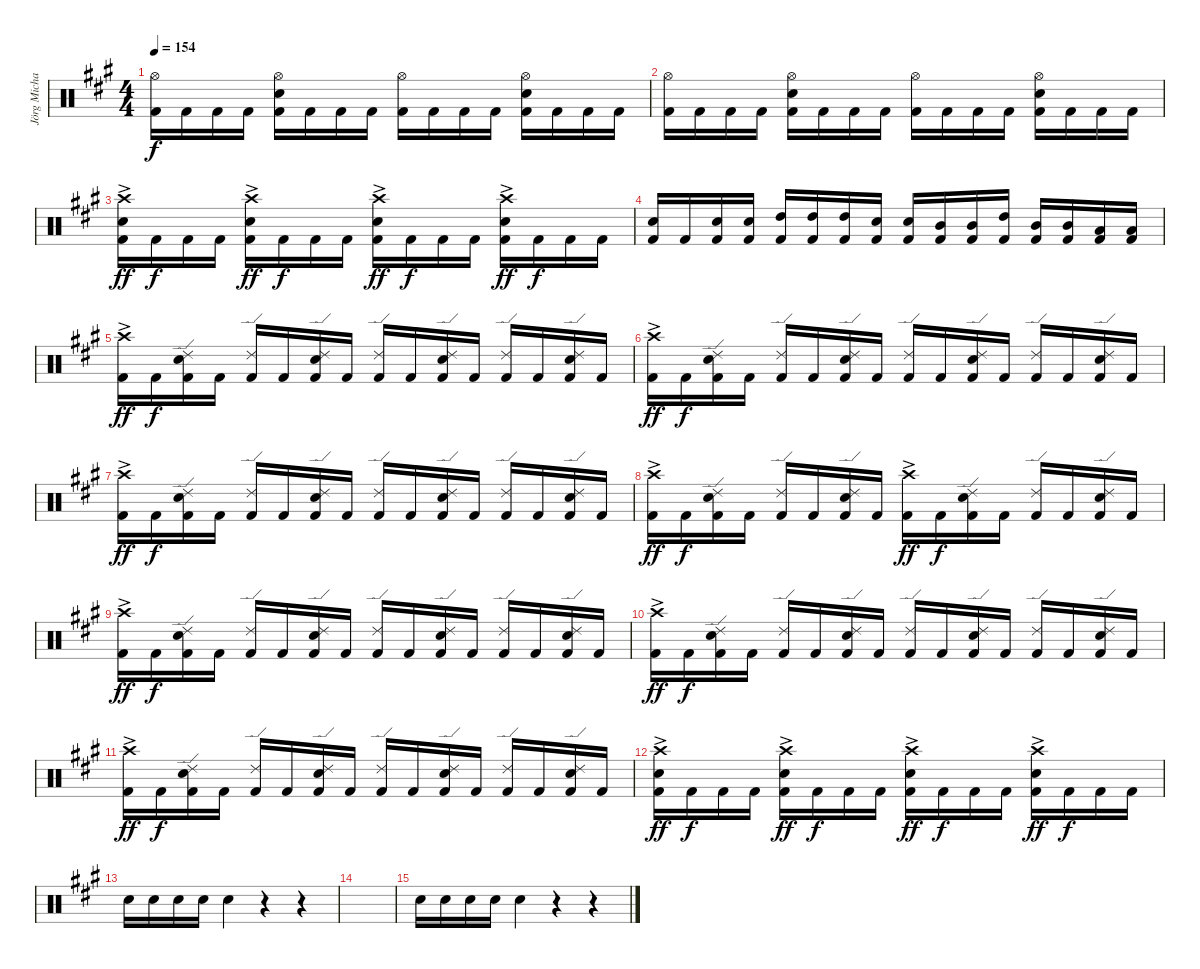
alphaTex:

\track ("Jörg Michael" "Jörg Micha") {instrument percussion}
\staff {score}
\articulation defaults
\ts (4 4)
\tempo 154
\clef neutral
\ks a
("Hi-Hat (open)" "Kick (hit) 2").16{dy f} "Kick (hit) 2".16 "Kick (hit) 2".16 "Kick (hit) 2".16 ("Electric Snare (hit)" "Kick (hit) 2" "Hi-Hat (open)").16 "Kick (hit) 2".16 "Kick (hit) 2".16 "Kick (hit) 2".16 ("Kick (hit) 2" "Hi-Hat (open)").16 "Kick (hit) 2".16 "Kick (hit) 2".16 "Kick (hit) 2".16 ("Electric Snare (hit)" "Kick (hit) 2" "Hi-Hat (open)").16 "Kick (hit) 2".16 "Kick (hit) 2".16 "Kick (hit) 2".16 |
("Hi-Hat (open)" "Kick (hit) 2").16 "Kick (hit) 2".16 "Kick (hit) 2".16 "Kick (hit) 2".16 ("Electric Snare (hit)" "Kick (hit) 2" "Hi-Hat (open)").16 "Kick (hit) 2".16 "Kick (hit) 2".16 "Kick (hit) 2".16 ("Kick (hit) 2" "Hi-Hat (open)").16 "Kick (hit) 2".16 "Kick (hit) 2".16 "Kick (hit) 2".16 ("Electric Snare (hit)" "Kick (hit) 2" "Hi-Hat (open)").16 "Kick (hit) 2".16 "Kick (hit) 2".16 "Kick (hit) 2".16 |
("Crash high (hit)"{ac} "Kick (hit) 2"{ac} "Electric Snare (hit)"{ac}).16{dy ff} "Kick (hit) 2".16{dy f} "Kick (hit) 2".16 "Kick (hit) 2".16 ("Electric Snare (hit)"{ac} "Kick (hit) 2"{ac} "Crash high (hit)"{ac}).16{dy ff} "Kick (hit) 2".16{dy f} "Kick (hit) 2".16 "Kick (hit) 2".16 ("Electric Snare (hit)"{ac} "Kick (hit) 2"{ac} "Crash high (hit)"{ac}).16{dy ff} "Kick (hit) 2".16{dy f} "Kick (hit) 2".16 "Kick (hit) 2".16 ("Electric Snare (hit)"{ac} "Kick (hit) 2"{ac} "Crash high (hit)"{ac}).16{dy ff} "Kick (hit) 2".16{dy f} "Kick (hit) 2".16 "Kick (hit) 2".16 |
("Electric Snare (hit)" "Kick (hit) 2").16 "Kick (hit) 2".16 ("Electric Snare (hit)" "Kick (hit) 2").16 ("Electric Snare (hit)" "Kick (hit) 2").16 ("High Tom (hit)" "Kick (hit) 2").16 ("High Tom (hit)" "Kick (hit) 2").16 ("High Tom (hit)" "Kick (hit) 2").16 ("Electric Snare (hit)" "Kick (hit) 2").16 ("Electric Snare (hit)" "Kick (hit) 2").16 ("Mid Tom (hit)" "Kick (hit) 2").16 ("Mid Tom (hit)" "Kick (hit) 2").16 ("High Tom (hit)" "Kick (hit) 2").16 ("Mid Tom (hit)" "Kick (hit) 2").16 ("Mid Tom (hit)" "Kick (hit) 2").16 ("Low Tom (hit)" "Kick (hit) 2").16 ("Low Tom (hit)" "Kick (hit) 2").16 |
("Crash high (hit)"{ac} "Kick (hit) 2"{ac}).16{dy ff} "Kick (hit) 2".16{dy f} ("Ride (edge) 2" "Kick (hit) 2" "Electric Snare (hit)").16 "Kick (hit) 2".16 ("Ride (edge) 2" "Kick (hit) 2").16 "Kick (hit) 2".16 ("Ride (edge) 2" "Kick (hit) 2" "Electric Snare (hit)").16 "Kick (hit) 2".16 ("Kick (hit) 2" "Ride (edge) 2").16 "Kick (hit) 2".16 ("Ride (edge) 2" "Kick (hit) 2" "Electric Snare (hit)").16 "Kick (hit) 2".16 ("Kick (hit) 2" "Ride (edge) 2").16 "Kick (hit) 2".16 ("Ride (edge) 2" "Kick (hit) 2" "Electric Snare (hit)").16 "Kick (hit) 2".16 |
("Crash high (hit)"{ac} "Kick (hit) 2"{ac}).16{dy ff} "Kick (hit) 2".16{dy f} ("Ride (edge) 2" "Kick (hit) 2" "Electric Snare (hit)").16 "Kick (hit) 2".16 ("Ride (edge) 2" "Kick (hit) 2").16 "Kick (hit) 2".16 ("Ride (edge) 2" "Kick (hit) 2" "Electric Snare (hit)").16 "Kick (hit) 2".16 ("Kick (hit) 2" "Ride (edge) 2").16 "Kick (hit) 2".16 ("Ride (edge) 2" "Kick (hit) 2" "Electric Snare (hit)").16 "Kick (hit) 2".16 ("Kick (hit) 2" "Ride (edge) 2").16 "Kick (hit) 2".16 ("Ride (edge) 2" "Kick (hit) 2" "Electric Snare (hit)").16 "Kick (hit) 2".16 |
("Crash high (hit)"{ac} "Kick (hit) 2"{ac}).16{dy ff} "Kick (hit) 2".16{dy f} ("Ride (edge) 2" "Kick (hit) 2" "Electric Snare (hit)").16 "Kick (hit) 2".16 ("Ride (edge) 2" "Kick (hit) 2").16 "Kick (hit) 2".16 ("Ride (edge) 2" "Kick (hit) 2" "Electric Snare (hit)").16 "Kick (hit) 2".16 ("Kick (hit) 2" "Ride (edge) 2").16 "Kick (hit) 2".16 ("Ride (edge) 2" "Kick (hit) 2" "Electric Snare (hit)").16 "Kick (hit) 2".16 ("Kick (hit) 2" "Ride (edge) 2").16 "Kick (hit) 2".16 ("Ride (edge) 2" "Kick (hit) 2" "Electric Snare (hit)").16 "Kick (hit) 2".16 |
("Crash high (hit)"{ac} "Kick (hit) 2"{ac}).16{dy ff} "Kick (hit) 2".16{dy f} ("Ride (edge) 2" "Kick (hit) 2" "Electric Snare (hit)").16 "Kick (hit) 2".16 ("Ride (edge) 2" "Kick (hit) 2").16 "Kick (hit) 2".16 ("Ride (edge) 2" "Kick (hit) 2" "Electric Snare (hit)").16 "Kick (hit) 2".16 ("Kick (hit) 2"{ac} "Crash high (hit)"{ac}).16{dy ff} "Kick (hit) 2".16{dy f} ("Ride (edge) 2" "Kick (hit) 2" "Electric Snare (hit)").16 "Kick (hit) 2".16 ("Kick (hit) 2" "Ride (edge) 2").16 "Kick (hit) 2".16 ("Ride (edge) 2" "Kick (hit) 2" "Electric Snare (hit)").16 "Kick (hit) 2".16 |
("Crash high (hit)"{ac} "Kick (hit) 2"{ac}).16{dy ff} "Kick (hit) 2".16{dy f} ("Ride (edge) 2" "Kick (hit) 2" "Electric Snare (hit)").16 "Kick (hit) 2".16 ("Ride (edge) 2" "Kick (hit) 2").16 "Kick (hit) 2".16 ("Ride (edge) 2" "Kick (hit) 2" "Electric Snare (hit)").16 "Kick (hit) 2".16 ("Kick (hit) 2" "Ride (edge) 2").16 "Kick (hit) 2".16 ("Ride (edge) 2" "Kick (hit) 2" "Electric Snare (hit)").16 "Kick (hit) 2".16 ("Kick (hit) 2" "Ride (edge) 2").16 "Kick (hit) 2".16 ("Ride (edge) 2" "Kick (hit) 2" "Electric Snare (hit)").16 "Kick (hit) 2".16 |
("Crash high (hit)"{ac} "Kick (hit) 2"{ac}).16{dy ff} "Kick (hit) 2".16{dy f} ("Ride (edge) 2" "Kick (hit) 2" "Electric Snare (hit)").16 "Kick (hit) 2".16 ("Ride (edge) 2" "Kick (hit) 2").16 "Kick (hit) 2".16 ("Ride (edge) 2" "Kick (hit) 2" "Electric Snare (hit)").16 "Kick (hit) 2".16 ("Kick (hit) 2" "Ride (edge) 2").16 "Kick (hit) 2".16 ("Ride (edge) 2" "Kick (hit) 2" "Electric Snare (hit)").16 "Kick (hit) 2".16 ("Kick (hit) 2" "Ride (edge) 2").16 "Kick (hit) 2".16 ("Ride (edge) 2" "Kick (hit) 2" "Electric Snare (hit)").16 "Kick (hit) 2".16 |
("Crash high (hit)"{ac} "Kick (hit) 2"{ac}).16{dy ff} "Kick (hit) 2".16{dy f} ("Ride (edge) 2" "Kick (hit) 2" "Electric Snare (hit)").16 "Kick (hit) 2".16 ("Ride (edge) 2" "Kick (hit) 2").16 "Kick (hit) 2".16 ("Ride (edge) 2" "Kick (hit) 2" "Electric Snare (hit)").16 "Kick (hit) 2".16 ("Kick (hit) 2" "Ride (edge) 2").16 "Kick (hit) 2".16 ("Ride (edge) 2" "Kick (hit) 2" "Electric Snare (hit)").16 "Kick (hit) 2".16 ("Kick (hit) 2" "Ride (edge) 2").16 "Kick (hit) 2".16 ("Ride (edge) 2" "Kick (hit) 2" "Electric Snare (hit)").16 "Kick (hit) 2".16 |
("Crash high (hit)"{ac} "Kick (hit) 2"{ac} "Electric Snare (hit)"{ac}).16{dy ff} "Kick (hit) 2".16{dy f} "Kick (hit) 2".16 "Kick (hit) 2".16 ("Electric Snare (hit)"{ac} "Kick (hit) 2"{ac} "Crash high (hit)"{ac}).16{dy ff} "Kick (hit) 2".16{dy f} "Kick (hit) 2".16 "Kick (hit) 2".16 ("Electric Snare (hit)"{ac} "Kick (hit) 2"{ac} "Crash high (hit)"{ac}).16{dy ff} "Kick (hit) 2".16{dy f} "Kick (hit) 2".16 "Kick (hit) 2".16 ("Electric Snare (hit)"{ac} "Kick (hit) 2"{ac} "Crash high (hit)"{ac}).16{dy ff} "Kick (hit) 2".16{dy f} "Kick (hit) 2".16 "Kick (hit) 2".16 |
"Electric Snare (hit)".16 "Electric Snare (hit)".16 "Electric Snare (hit)".16 "Electric Snare (hit)".16 "Electric Snare (hit)".4 r.4 r.4 |
|
"Electric Snare (hit)".16 "Electric Snare (hit)".16 "Electric Snare (hit)".16 "Electric Snare (hit)".16 "Electric Snare (hit)".4 r.4 r.4
